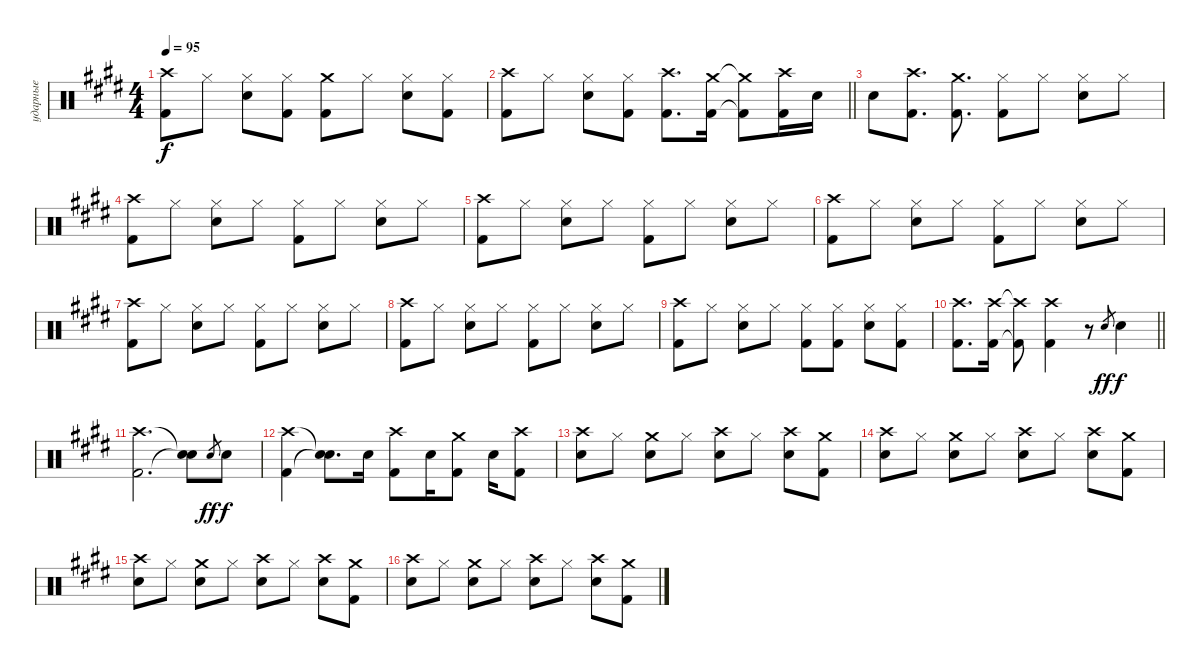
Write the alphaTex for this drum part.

\track ("ударные" "ударные") {instrument percussion}
\staff {score}
\articulation defaults
\ts (4 4)
\tempo 95
\clef neutral
\ks e
("Crash high (hit)" "Kick (hit) 2").8{dy f} "Hi-Hat (closed)".8 ("Hi-Hat (closed)" "Snare (hit) 2").8 ("Hi-Hat (closed)" "Kick (hit) 2").8 ("Crash medium (hit)" "Kick (hit) 2").8 "Hi-Hat (closed)".8 ("Hi-Hat (closed)" "Snare (hit) 2").8 ("Hi-Hat (closed)" "Kick (hit) 2").8 |
\barLineRight lightlight
("Crash high (hit)" "Kick (hit) 2").8 "Hi-Hat (closed)".8 ("Hi-Hat (closed)" "Snare (hit) 2").8 ("Hi-Hat (closed)" "Kick (hit) 2").8 ("Crash high (hit)" "Kick (hit) 2").8{d} ("Crash medium (hit)" "Kick (hit) 2").16 ("Crash medium (hit)"{t} "Kick (hit) 2"{t}).8 ("Crash high (hit)" "Kick (hit) 2").16 "Snare (hit) 2".16 |
\section ("" "")
"Snare (hit) 2".8 ("Crash high (hit)" "Kick (hit) 2").8{d} ("Crash medium (hit)" "Kick (hit) 2").8{d} ("Hi-Hat (closed)" "Kick (hit) 2").8 "Hi-Hat (closed)".8 ("Hi-Hat (closed)" "Snare (hit) 2").8 "Hi-Hat (closed)".8 |
("Crash high (hit)" "Kick (hit) 2").8 "Hi-Hat (closed)".8 ("Hi-Hat (closed)" "Snare (hit) 2").8 "Hi-Hat (closed)".8 ("Hi-Hat (closed)" "Kick (hit) 2").8 "Hi-Hat (closed)".8 ("Hi-Hat (closed)" "Snare (hit) 2").8 "Hi-Hat (closed)".8 |
("Crash high (hit)" "Kick (hit) 2").8 "Hi-Hat (closed)".8 ("Hi-Hat (closed)" "Snare (hit) 2").8 "Hi-Hat (closed)".8 ("Hi-Hat (closed)" "Kick (hit) 2").8 "Hi-Hat (closed)".8 ("Hi-Hat (closed)" "Snare (hit) 2").8 "Hi-Hat (closed)".8 |
("Crash high (hit)" "Kick (hit) 2").8 "Hi-Hat (closed)".8 ("Hi-Hat (closed)" "Snare (hit) 2").8 "Hi-Hat (closed)".8 ("Hi-Hat (closed)" "Kick (hit) 2").8 "Hi-Hat (closed)".8 ("Hi-Hat (closed)" "Snare (hit) 2").8 "Hi-Hat (closed)".8 |
("Crash high (hit)" "Kick (hit) 2").8 "Hi-Hat (closed)".8 ("Hi-Hat (closed)" "Snare (hit) 2").8 "Hi-Hat (closed)".8 ("Hi-Hat (closed)" "Kick (hit) 2").8 "Hi-Hat (closed)".8 ("Hi-Hat (closed)" "Snare (hit) 2").8 "Hi-Hat (closed)".8 |
("Crash high (hit)" "Kick (hit) 2").8 "Hi-Hat (closed)".8 ("Hi-Hat (closed)" "Snare (hit) 2").8 "Hi-Hat (closed)".8 ("Hi-Hat (closed)" "Kick (hit) 2").8 "Hi-Hat (closed)".8 ("Hi-Hat (closed)" "Snare (hit) 2").8 "Hi-Hat (closed)".8 |
("Crash high (hit)" "Kick (hit) 2").8 "Hi-Hat (closed)".8 ("Hi-Hat (closed)" "Snare (hit) 2").8 "Hi-Hat (closed)".8 ("Hi-Hat (closed)" "Kick (hit) 2").8 ("Hi-Hat (closed)" "Kick (hit) 2").8 ("Hi-Hat (closed)" "Snare (hit) 2").8 ("Hi-Hat (closed)" "Kick (hit) 2").8 |
\barLineRight lightlight
("Crash high (hit)" "Kick (hit) 2").8{d} ("Crash high (hit)" "Kick (hit) 2").16 ("Crash high (hit)"{t} "Kick (hit) 2"{t}).8 ("Crash high (hit)" "Kick (hit) 2").4 r.8 "Snare (hit) 2".8{gr dy ff} "Snare (hit) 2".4{dy f} |
\section ("" "")
("Crash high (hit)" "Kick (hit) 2").2{d} ("Snare (hit)"{t} "Snare (hit)"{t}).8 "Snare (hit) 2".8{gr dy ff} "Snare (hit) 2".8{dy f} |
("Crash high (hit)" "Kick (hit) 2").4 ("Snare (hit)"{t} "Snare (hit)"{t}).8{d} "Snare (hit) 2".16 ("Crash high (hit)" "Kick (hit) 2").8 "Snare (hit) 2".16 ("Crash medium (hit)" "Kick (hit) 2").8 "Snare (hit) 2".16 ("Crash high (hit)" "Kick (hit) 2").8 |
("Crash high (hit)" "Snare (hit) 2").8 "Hi-Hat (closed)".8 ("Crash medium (hit)" "Snare (hit) 2").8 "Hi-Hat (closed)".8 ("Crash high (hit)" "Snare (hit) 2").8 "Hi-Hat (closed)".8 ("Crash high (hit)" "Snare (hit) 2").8 ("Crash medium (hit)" "Kick (hit) 2").8 |
("Crash high (hit)" "Snare (hit) 2").8 "Hi-Hat (closed)".8 ("Crash medium (hit)" "Snare (hit) 2").8 "Hi-Hat (closed)".8 ("Crash high (hit)" "Snare (hit) 2").8 "Hi-Hat (closed)".8 ("Crash high (hit)" "Snare (hit) 2").8 ("Crash medium (hit)" "Kick (hit) 2").8 |
("Crash high (hit)" "Snare (hit) 2").8 "Hi-Hat (closed)".8 ("Crash medium (hit)" "Snare (hit) 2").8 "Hi-Hat (closed)".8 ("Crash high (hit)" "Snare (hit) 2").8 "Hi-Hat (closed)".8 ("Crash high (hit)" "Snare (hit) 2").8 ("Crash medium (hit)" "Kick (hit) 2").8 |
("Crash high (hit)" "Snare (hit) 2").8 "Hi-Hat (closed)".8 ("Crash medium (hit)" "Snare (hit) 2").8 "Hi-Hat (closed)".8 ("Crash high (hit)" "Snare (hit) 2").8 "Hi-Hat (closed)".8 ("Crash high (hit)" "Snare (hit) 2").8 ("Crash medium (hit)" "Kick (hit) 2").8
